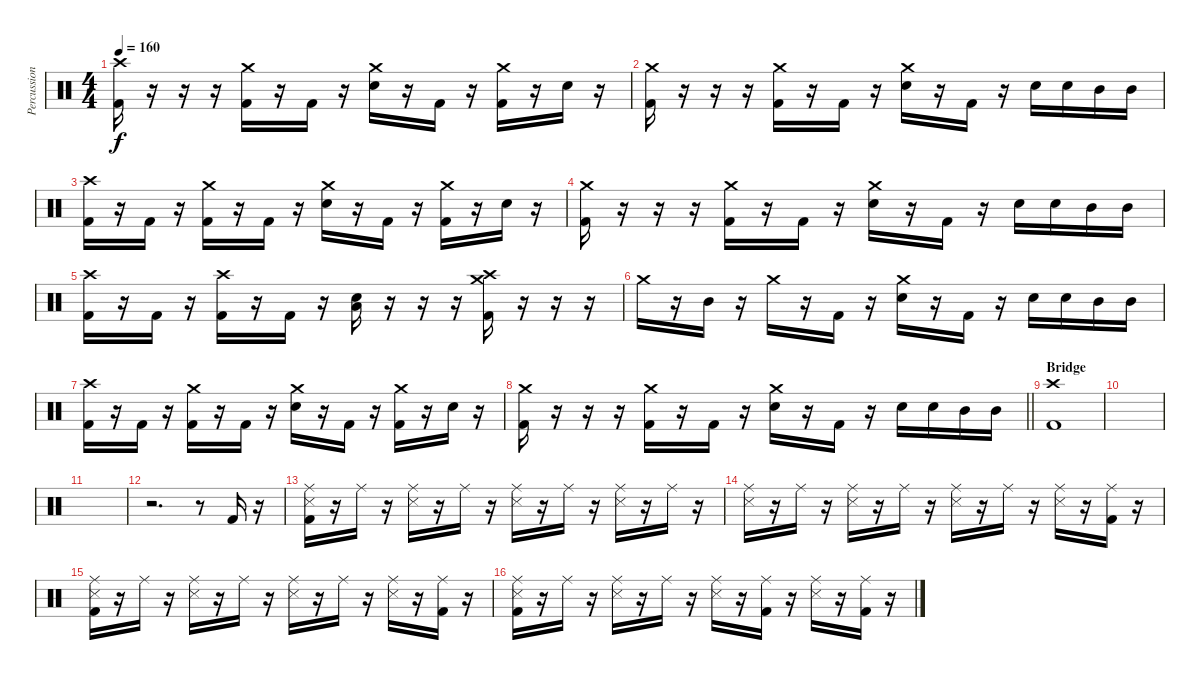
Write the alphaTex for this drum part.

\track ("Percussion" "Percussion") {instrument percussion}
\staff {score}
\articulation defaults
\ts (4 4)
\tempo 160
\clef neutral
\ks c
("Crash high (hit)" "Kick (hit) 2").16{dy f} r.16 r.16 r.16 ("Crash medium (hit)" "Kick (hit) 2").16 r.16 "Kick (hit) 2".16 r.16 ("Crash medium (hit)" "Snare (hit) 2").16 r.16 "Kick (hit) 2".16 r.16 ("Crash medium (hit)" "Kick (hit) 2").16 r.16 "Snare (hit) 2".16 r.16 |
("Crash medium (hit)" "Kick (hit) 2").16 r.16 r.16 r.16 ("Crash medium (hit)" "Kick (hit) 2").16 r.16 "Kick (hit) 2".16 r.16 ("Crash medium (hit)" "Snare (hit) 2").16 r.16 "Kick (hit) 2".16 r.16 "Snare (hit) 2".16 "Snare (hit) 2".16 "Mid Tom (hit)".16 "Mid Tom (hit)".16 |
("Crash high (hit)" "Kick (hit) 2").16 r.16 "Kick (hit) 2".16 r.16 ("Crash medium (hit)" "Kick (hit) 2").16 r.16 "Kick (hit) 2".16 r.16 ("Crash medium (hit)" "Snare (hit) 2").16 r.16 "Kick (hit) 2".16 r.16 ("Crash medium (hit)" "Kick (hit) 2").16 r.16 "Snare (hit) 2".16 r.16 |
("Crash medium (hit)" "Kick (hit) 2").16 r.16 r.16 r.16 ("Crash medium (hit)" "Kick (hit) 2").16 r.16 "Kick (hit) 2".16 r.16 ("Crash medium (hit)" "Snare (hit) 2").16 r.16 "Kick (hit) 2".16 r.16 "Snare (hit) 2".16 "Snare (hit) 2".16 "Mid Tom (hit)".16 "Mid Tom (hit)".16 |
("Crash high (hit)" "Kick (hit) 2").16 r.16 "Kick (hit) 2".16 r.16 ("Crash high (hit)" "Kick (hit) 2").16 r.16 "Kick (hit) 2".16 r.16 ("Low Floor Tom (hit)" "Snare (hit) 2").16 r.16 r.16 r.16 ("Crash high (hit)" "Crash medium (hit)" "Kick (hit) 2").16 r.16 r.16 r.16 |
"Crash medium (hit)".16 r.16 "Mid Tom (hit)".16 r.16 "Crash medium (hit)".16 r.16 "Kick (hit) 2".16 r.16 ("Crash medium (hit)" "Snare (hit) 2").16 r.16 "Kick (hit) 2".16 r.16 "Snare (hit) 2".16 "Snare (hit) 2".16 "Mid Tom (hit)".16 "Mid Tom (hit)".16 |
("Crash high (hit)" "Kick (hit) 2").16 r.16 "Kick (hit) 2".16 r.16 ("Crash medium (hit)" "Kick (hit) 2").16 r.16 "Kick (hit) 2".16 r.16 ("Crash medium (hit)" "Snare (hit) 2").16 r.16 "Kick (hit) 2".16 r.16 ("Crash medium (hit)" "Kick (hit) 2").16 r.16 "Snare (hit) 2".16 r.16 |
\barLineRight lightlight
("Crash medium (hit)" "Kick (hit) 2").16 r.16 r.16 r.16 ("Crash medium (hit)" "Kick (hit) 2").16 r.16 "Kick (hit) 2".16 r.16 ("Crash medium (hit)" "Snare (hit) 2").16 r.16 "Kick (hit) 2".16 r.16 "Snare (hit) 2".16 "Snare (hit) 2".16 "Mid Tom (hit)".16 "Mid Tom (hit)".16 |
\section ("" "Bridge")
("Crash high (hit)" "Kick (hit) 2").1 |
|
|
r.2{d} r.8 "Kick (hit) 2".16 r.16 |
("Ride (middle)" "Snare (side stick) 3" "Kick (hit) 2").16 r.16 "Ride (middle)".16 r.16 ("Ride (middle)" "Snare (side stick) 3").16 r.16 "Ride (middle)".16 r.16 ("Ride (middle)" "Snare (side stick) 3").16 r.16 "Ride (middle)".16 r.16 ("Ride (middle)" "Snare (side stick) 3").16 r.16 "Ride (middle)".16 r.16 |
("Ride (middle)" "Snare (side stick) 3").16 r.16 "Ride (middle)".16 r.16 ("Ride (middle)" "Snare (side stick) 3").16 r.16 "Ride (middle)".16 r.16 ("Ride (middle)" "Snare (side stick) 3").16 r.16 "Ride (middle)".16 r.16 ("Ride (middle)" "Snare (side stick) 3").16 r.16 ("Ride (middle)" "Kick (hit) 2").16 r.16 |
("Ride (middle)" "Snare (side stick) 3" "Kick (hit) 2").16 r.16 "Ride (middle)".16 r.16 ("Ride (middle)" "Snare (side stick) 3").16 r.16 "Ride (middle)".16 r.16 ("Ride (middle)" "Snare (side stick) 3").16 r.16 "Ride (middle)".16 r.16 ("Ride (middle)" "Snare (side stick) 3").16 r.16 ("Ride (middle)" "Kick (hit) 2").16 r.16 |
("Ride (middle)" "Snare (side stick) 3" "Kick (hit) 2").16 r.16 "Ride (middle)".16 r.16 ("Ride (middle)" "Snare (side stick) 3").16 r.16 "Ride (middle)".16 r.16 ("Ride (middle)" "Snare (side stick) 3").16 r.16 ("Ride (middle)" "Kick (hit) 2").16 r.16 ("Ride (middle)" "Snare (side stick) 3").16 r.16 ("Ride (middle)" "Kick (hit) 2").16 r.16
